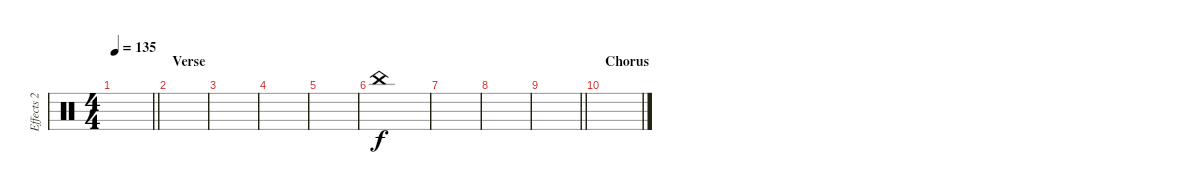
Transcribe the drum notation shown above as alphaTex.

\track ("Effects 2" "Effects 2") {instrument percussion}
\staff {score}
\articulation defaults
\ts (4 4)
\tempo 135
\clef neutral
\barLineRight lightlight
\ks c
|
\section ("" "Verse")
|
|
|
|
"China (hit)".1 |
|
|
\barLineRight lightlight
|
\section ("" "Chorus")
